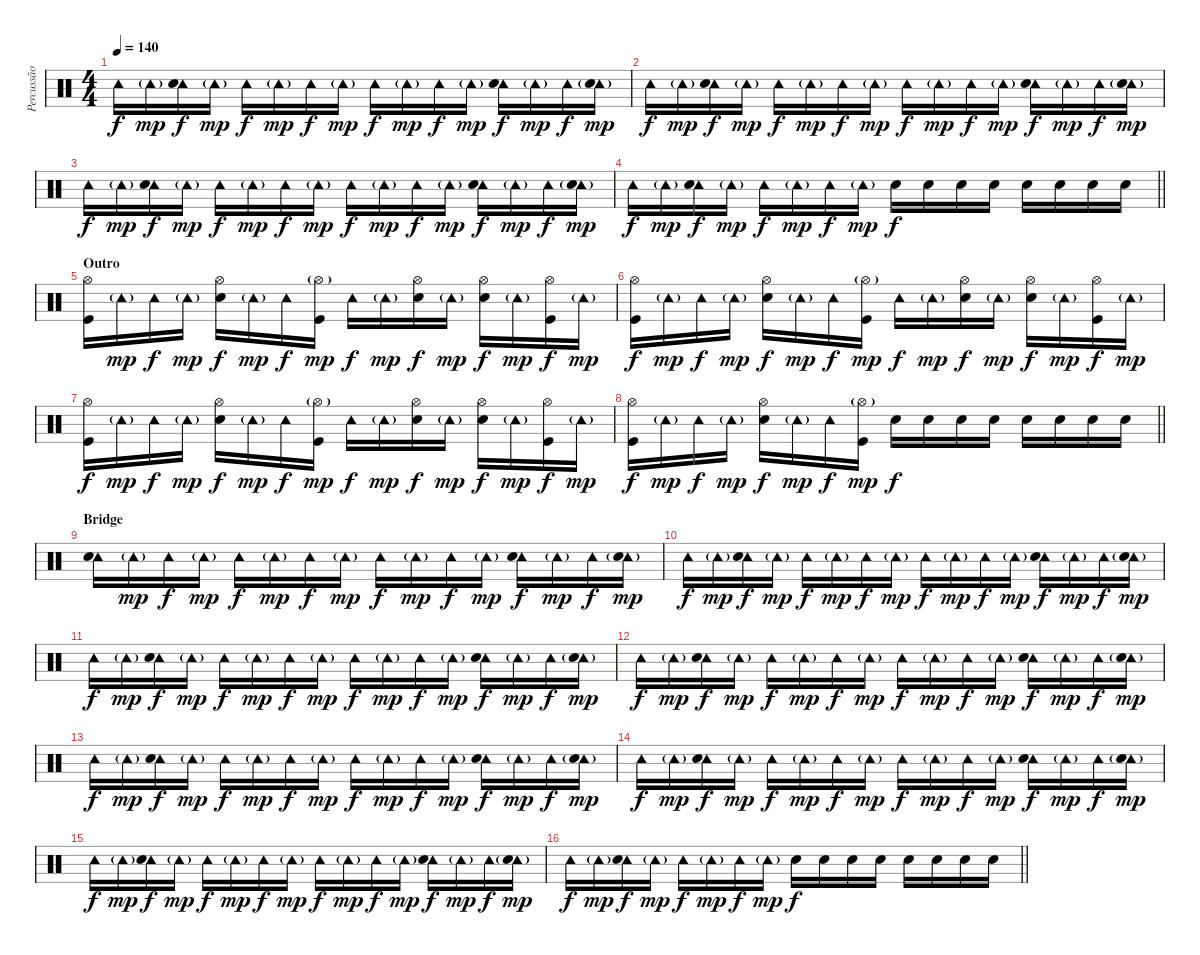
\track ("Percussão" "Percussão") {instrument percussion}
\staff {score}
\articulation defaults
\ts (4 4)
\tempo 140
\clef neutral
\ks c "Tambourine (hit)".16{dy f} "Tambourine (hit)"{g}.16{dy mp}
("Tambourine (hit)" "Snare (hit) 2").16{dy f} "Tambourine (hit)"{g}.16{dy mp} "Tambourine (hit)".16{dy f} "Tambourine (hit)"{g}.16{dy mp} "Tambourine (hit)".16{dy f} "Tambourine (hit)"{g}.16{dy mp} "Tambourine (hit)".16{dy f} "Tambourine (hit)"{g}.16{dy mp} "Tambourine (hit)".16{dy f} "Tambourine (hit)"{g}.16{dy mp} ("Tambourine (hit)" "Snare (hit) 2").16{dy f} "Tambourine (hit)"{g}.16{dy mp} "Tambourine (hit)".16{dy f} ("Tambourine (hit)"{g} "Snare (hit) 2").16{dy mp} |
"Tambourine (hit)".16{dy f} "Tambourine (hit)"{g}.16{dy mp} ("Tambourine (hit)" "Snare (hit) 2").16{dy f} "Tambourine (hit)"{g}.16{dy mp} "Tambourine (hit)".16{dy f} "Tambourine (hit)"{g}.16{dy mp} "Tambourine (hit)".16{dy f} "Tambourine (hit)"{g}.16{dy mp} "Tambourine (hit)".16{dy f} "Tambourine (hit)"{g}.16{dy mp} "Tambourine (hit)".16{dy f} "Tambourine (hit)"{g}.16{dy mp} ("Tambourine (hit)" "Snare (hit) 2").16{dy f} "Tambourine (hit)"{g}.16{dy mp} "Tambourine (hit)".16{dy f} ("Tambourine (hit)"{g} "Snare (hit) 2").16{dy mp} |
"Tambourine (hit)".16{dy f} "Tambourine (hit)"{g}.16{dy mp} ("Tambourine (hit)" "Snare (hit) 2").16{dy f} "Tambourine (hit)"{g}.16{dy mp} "Tambourine (hit)".16{dy f} "Tambourine (hit)"{g}.16{dy mp} "Tambourine (hit)".16{dy f} "Tambourine (hit)"{g}.16{dy mp} "Tambourine (hit)".16{dy f} "Tambourine (hit)"{g}.16{dy mp} "Tambourine (hit)".16{dy f} "Tambourine (hit)"{g}.16{dy mp} ("Tambourine (hit)" "Snare (hit) 2").16{dy f} "Tambourine (hit)"{g}.16{dy mp} "Tambourine (hit)".16{dy f} ("Tambourine (hit)"{g} "Snare (hit) 2").16{dy mp} |
\barLineRight lightlight "Tambourine (hit)".16{dy f} "Tambourine (hit)"{g}.16{dy mp}
("Tambourine (hit)" "Snare (hit) 2").16{dy f} "Tambourine (hit)"{g}.16{dy mp} "Tambourine (hit)".16{dy f} "Tambourine (hit)"{g}.16{dy mp} "Tambourine (hit)".16{dy f} "Tambourine (hit)"{g}.16{dy mp} "Snare (hit) 2".16{dy f} "Snare (hit) 2".16 "Snare (hit) 2".16 "Snare (hit) 2".16 "Snare (hit) 2".16 "Snare (hit) 2".16 "Snare (hit) 2".16 "Snare (hit) 2".16 |
\section ("" "Outro")
("Hi-Hat (open)" "Kick (hit)").16 "Tambourine (hit)"{g}.16{dy mp} "Tambourine (hit)".16{dy f} "Tambourine (hit)"{g}.16{dy mp} ("Hi-Hat (open)" "Snare (hit) 2").16{dy f} "Tambourine (hit)"{g}.16{dy mp} "Tambourine (hit)".16{dy f} ("Hi-Hat (open)"{g} "Kick (hit)").16{dy mp} "Tambourine (hit)".16{dy f} "Tambourine (hit)"{g}.16{dy mp} ("Hi-Hat (open)" "Snare (hit) 2").16{dy f} "Tambourine (hit)"{g}.16{dy mp} ("Hi-Hat (open)" "Snare (hit) 2").16{dy f} "Tambourine (hit)"{g}.16{dy mp} ("Hi-Hat (open)" "Kick (hit)").16{dy f} "Tambourine (hit)"{g}.16{dy mp} |
("Hi-Hat (open)" "Kick (hit)").16{dy f} "Tambourine (hit)"{g}.16{dy mp} "Tambourine (hit)".16{dy f} "Tambourine (hit)"{g}.16{dy mp} ("Hi-Hat (open)" "Snare (hit) 2").16{dy f} "Tambourine (hit)"{g}.16{dy mp} "Tambourine (hit)".16{dy f} ("Hi-Hat (open)"{g} "Kick (hit)").16{dy mp} "Tambourine (hit)".16{dy f} "Tambourine (hit)"{g}.16{dy mp} ("Hi-Hat (open)" "Snare (hit) 2").16{dy f} "Tambourine (hit)"{g}.16{dy mp} ("Hi-Hat (open)" "Snare (hit) 2").16{dy f} "Tambourine (hit)"{g}.16{dy mp} ("Hi-Hat (open)" "Kick (hit)").16{dy f} "Tambourine (hit)"{g}.16{dy mp} |
("Hi-Hat (open)" "Kick (hit)").16{dy f} "Tambourine (hit)"{g}.16{dy mp} "Tambourine (hit)".16{dy f} "Tambourine (hit)"{g}.16{dy mp} ("Hi-Hat (open)" "Snare (hit) 2").16{dy f} "Tambourine (hit)"{g}.16{dy mp} "Tambourine (hit)".16{dy f} ("Hi-Hat (open)"{g} "Kick (hit)").16{dy mp} "Tambourine (hit)".16{dy f} "Tambourine (hit)"{g}.16{dy mp} ("Hi-Hat (open)" "Snare (hit) 2").16{dy f} "Tambourine (hit)"{g}.16{dy mp} ("Hi-Hat (open)" "Snare (hit) 2").16{dy f} "Tambourine (hit)"{g}.16{dy mp} ("Hi-Hat (open)" "Kick (hit)").16{dy f} "Tambourine (hit)"{g}.16{dy mp} |
\barLineRight lightlight
("Hi-Hat (open)" "Kick (hit)").16{dy f} "Tambourine (hit)"{g}.16{dy mp} "Tambourine (hit)".16{dy f} "Tambourine (hit)"{g}.16{dy mp} ("Hi-Hat (open)" "Snare (hit) 2").16{dy f} "Tambourine (hit)"{g}.16{dy mp} "Tambourine (hit)".16{dy f} ("Hi-Hat (open)"{g} "Kick (hit)").16{dy mp} "Snare (hit) 2".16{dy f} "Snare (hit) 2".16 "Snare (hit) 2".16 "Snare (hit) 2".16 "Snare (hit) 2".16 "Snare (hit) 2".16 "Snare (hit) 2".16 "Snare (hit) 2".16 |
\section ("" "Bridge")
("Tambourine (hit)" "Snare (hit) 2").16 "Tambourine (hit)"{g}.16{dy mp} "Tambourine (hit)".16{dy f} "Tambourine (hit)"{g}.16{dy mp} "Tambourine (hit)".16{dy f} "Tambourine (hit)"{g}.16{dy mp} "Tambourine (hit)".16{dy f} "Tambourine (hit)"{g}.16{dy mp} "Tambourine (hit)".16{dy f} "Tambourine (hit)"{g}.16{dy mp} "Tambourine (hit)".16{dy f} "Tambourine (hit)"{g}.16{dy mp} ("Tambourine (hit)" "Snare (hit) 2").16{dy f} "Tambourine (hit)"{g}.16{dy mp} "Tambourine (hit)".16{dy f} ("Tambourine (hit)"{g} "Snare (hit) 2").16{dy mp} |
"Tambourine (hit)".16{dy f} "Tambourine (hit)"{g}.16{dy mp} ("Tambourine (hit)" "Snare (hit) 2").16{dy f} "Tambourine (hit)"{g}.16{dy mp} "Tambourine (hit)".16{dy f} "Tambourine (hit)"{g}.16{dy mp} "Tambourine (hit)".16{dy f} "Tambourine (hit)"{g}.16{dy mp} "Tambourine (hit)".16{dy f} "Tambourine (hit)"{g}.16{dy mp} "Tambourine (hit)".16{dy f} "Tambourine (hit)"{g}.16{dy mp} ("Tambourine (hit)" "Snare (hit) 2").16{dy f} "Tambourine (hit)"{g}.16{dy mp} "Tambourine (hit)".16{dy f} ("Tambourine (hit)"{g} "Snare (hit) 2").16{dy mp} |
"Tambourine (hit)".16{dy f} "Tambourine (hit)"{g}.16{dy mp} ("Tambourine (hit)" "Snare (hit) 2").16{dy f} "Tambourine (hit)"{g}.16{dy mp} "Tambourine (hit)".16{dy f} "Tambourine (hit)"{g}.16{dy mp} "Tambourine (hit)".16{dy f} "Tambourine (hit)"{g}.16{dy mp} "Tambourine (hit)".16{dy f} "Tambourine (hit)"{g}.16{dy mp} "Tambourine (hit)".16{dy f} "Tambourine (hit)"{g}.16{dy mp} ("Tambourine (hit)" "Snare (hit) 2").16{dy f} "Tambourine (hit)"{g}.16{dy mp} "Tambourine (hit)".16{dy f} ("Tambourine (hit)"{g} "Snare (hit) 2").16{dy mp} |
"Tambourine (hit)".16{dy f} "Tambourine (hit)"{g}.16{dy mp} ("Tambourine (hit)" "Snare (hit) 2").16{dy f} "Tambourine (hit)"{g}.16{dy mp} "Tambourine (hit)".16{dy f} "Tambourine (hit)"{g}.16{dy mp} "Tambourine (hit)".16{dy f} "Tambourine (hit)"{g}.16{dy mp} "Tambourine (hit)".16{dy f} "Tambourine (hit)"{g}.16{dy mp} "Tambourine (hit)".16{dy f} "Tambourine (hit)"{g}.16{dy mp} ("Tambourine (hit)" "Snare (hit) 2").16{dy f} "Tambourine (hit)"{g}.16{dy mp} "Tambourine (hit)".16{dy f} ("Tambourine (hit)"{g} "Snare (hit) 2").16{dy mp} |
"Tambourine (hit)".16{dy f} "Tambourine (hit)"{g}.16{dy mp} ("Tambourine (hit)" "Snare (hit) 2").16{dy f} "Tambourine (hit)"{g}.16{dy mp} "Tambourine (hit)".16{dy f} "Tambourine (hit)"{g}.16{dy mp} "Tambourine (hit)".16{dy f} "Tambourine (hit)"{g}.16{dy mp} "Tambourine (hit)".16{dy f} "Tambourine (hit)"{g}.16{dy mp} "Tambourine (hit)".16{dy f} "Tambourine (hit)"{g}.16{dy mp} ("Tambourine (hit)" "Snare (hit) 2").16{dy f} "Tambourine (hit)"{g}.16{dy mp} "Tambourine (hit)".16{dy f} ("Tambourine (hit)"{g} "Snare (hit) 2").16{dy mp} |
"Tambourine (hit)".16{dy f} "Tambourine (hit)"{g}.16{dy mp} ("Tambourine (hit)" "Snare (hit) 2").16{dy f} "Tambourine (hit)"{g}.16{dy mp} "Tambourine (hit)".16{dy f} "Tambourine (hit)"{g}.16{dy mp} "Tambourine (hit)".16{dy f} "Tambourine (hit)"{g}.16{dy mp} "Tambourine (hit)".16{dy f} "Tambourine (hit)"{g}.16{dy mp} "Tambourine (hit)".16{dy f} "Tambourine (hit)"{g}.16{dy mp} ("Tambourine (hit)" "Snare (hit) 2").16{dy f} "Tambourine (hit)"{g}.16{dy mp} "Tambourine (hit)".16{dy f} ("Tambourine (hit)"{g} "Snare (hit) 2").16{dy mp} |
"Tambourine (hit)".16{dy f} "Tambourine (hit)"{g}.16{dy mp} ("Tambourine (hit)" "Snare (hit) 2").16{dy f} "Tambourine (hit)"{g}.16{dy mp} "Tambourine (hit)".16{dy f} "Tambourine (hit)"{g}.16{dy mp} "Tambourine (hit)".16{dy f} "Tambourine (hit)"{g}.16{dy mp} "Tambourine (hit)".16{dy f} "Tambourine (hit)"{g}.16{dy mp} "Tambourine (hit)".16{dy f} "Tambourine (hit)"{g}.16{dy mp} ("Tambourine (hit)" "Snare (hit) 2").16{dy f} "Tambourine (hit)"{g}.16{dy mp} "Tambourine (hit)".16{dy f} ("Tambourine (hit)"{g} "Snare (hit) 2").16{dy mp} |
\barLineRight lightlight "Tambourine (hit)".16{dy f} "Tambourine (hit)"{g}.16{dy mp}
("Tambourine (hit)" "Snare (hit) 2").16{dy f} "Tambourine (hit)"{g}.16{dy mp} "Tambourine (hit)".16{dy f} "Tambourine (hit)"{g}.16{dy mp} "Tambourine (hit)".16{dy f} "Tambourine (hit)"{g}.16{dy mp} "Snare (hit) 2".16{dy f} "Snare (hit) 2".16 "Snare (hit) 2".16 "Snare (hit) 2".16 "Snare (hit) 2".16 "Snare (hit) 2".16 "Snare (hit) 2".16 "Snare (hit) 2".16
